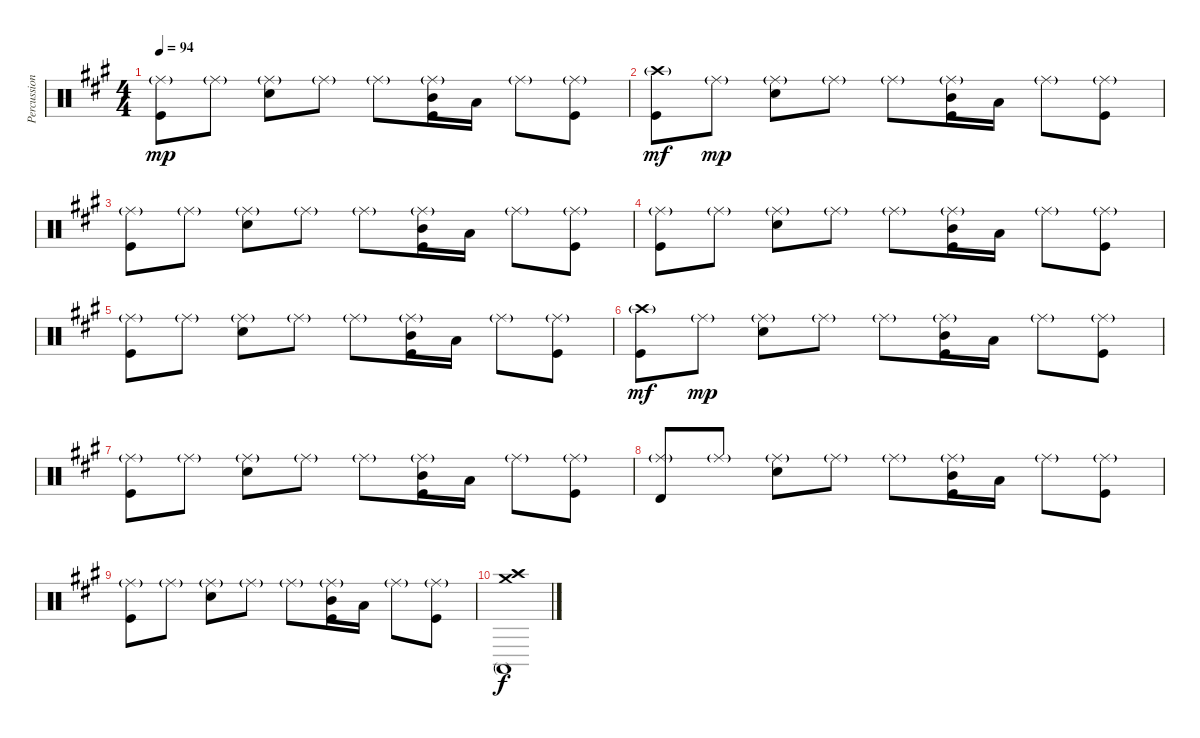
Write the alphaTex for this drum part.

\track ("Percussion" "Percussion") {instrument percussion}
\staff {score}
\articulation defaults
\ts (4 4)
\tempo 94
\clef neutral
\ks a
("Ride (middle)"{g} "Kick (hit)").8{dy mp} "Ride (middle)"{g}.8 ("Ride (middle)"{g} "Electric Snare (hit)").8 "Ride (middle)"{g}.8 "Ride (middle)"{g}.8 ("Ride (middle)"{g} "Mid Tom (hit)" "Kick (hit)").16 "Low Tom (hit)".16 "Ride (middle)"{g}.8 ("Ride (middle)"{g} "Kick (hit)").8 |
("Crash high (hit)"{g} "Kick (hit)").8{dy mf} "Ride (middle)"{g}.8{dy mp} ("Ride (middle)"{g} "Electric Snare (hit)").8 "Ride (middle)"{g}.8 "Ride (middle)"{g}.8 ("Ride (middle)"{g} "Mid Tom (hit)" "Kick (hit)").16 "Low Tom (hit)".16 "Ride (middle)"{g}.8 ("Ride (middle)"{g} "Kick (hit)").8 |
("Ride (middle)"{g} "Kick (hit)").8 "Ride (middle)"{g}.8 ("Ride (middle)"{g} "Electric Snare (hit)").8 "Ride (middle)"{g}.8 "Ride (middle)"{g}.8 ("Ride (middle)"{g} "Mid Tom (hit)" "Kick (hit)").16 "Low Tom (hit)".16 "Ride (middle)"{g}.8 ("Ride (middle)"{g} "Kick (hit)").8 |
("Ride (middle)"{g} "Kick (hit)").8 "Ride (middle)"{g}.8 ("Ride (middle)"{g} "Electric Snare (hit)").8 "Ride (middle)"{g}.8 "Ride (middle)"{g}.8 ("Ride (middle)"{g} "Mid Tom (hit)" "Kick (hit)").16 "Low Tom (hit)".16 "Ride (middle)"{g}.8 ("Ride (middle)"{g} "Kick (hit)").8 |
("Ride (middle)"{g} "Kick (hit)").8 "Ride (middle)"{g}.8 ("Ride (middle)"{g} "Electric Snare (hit)").8 "Ride (middle)"{g}.8 "Ride (middle)"{g}.8 ("Ride (middle)"{g} "Mid Tom (hit)" "Kick (hit)").16 "Low Tom (hit)".16 "Ride (middle)"{g}.8 ("Ride (middle)"{g} "Kick (hit)").8 |
("Crash high (hit)"{g} "Kick (hit)").8{dy mf} "Ride (middle)"{g}.8{dy mp} ("Ride (middle)"{g} "Electric Snare (hit)").8 "Ride (middle)"{g}.8 "Ride (middle)"{g}.8 ("Ride (middle)"{g} "Mid Tom (hit)" "Kick (hit)").16 "Low Tom (hit)".16 "Ride (middle)"{g}.8 ("Ride (middle)"{g} "Kick (hit)").8 |
("Ride (middle)"{g} "Kick (hit)").8 "Ride (middle)"{g}.8 ("Ride (middle)"{g} "Electric Snare (hit)").8 "Ride (middle)"{g}.8 "Ride (middle)"{g}.8 ("Ride (middle)"{g} "Mid Tom (hit)" "Kick (hit)").16 "Low Tom (hit)".16 "Ride (middle)"{g}.8 ("Ride (middle)"{g} "Kick (hit)").8 |
("Ride (middle)"{g} "Timbale high (hit)").8 "Ride (middle)"{g}.8 ("Ride (middle)"{g} "Electric Snare (hit)").8 "Ride (middle)"{g}.8 "Ride (middle)"{g}.8 ("Ride (middle)"{g} "Mid Tom (hit)" "Kick (hit)").16 "Low Tom (hit)".16 "Ride (middle)"{g}.8 ("Ride (middle)"{g} "Kick (hit)").8 |
("Ride (middle)"{g} "Kick (hit)").8 "Ride (middle)"{g}.8 ("Ride (middle)"{g} "Electric Snare (hit)").8 "Ride (middle)"{g}.8 "Ride (middle)"{g}.8 ("Ride (middle)"{g} "Mid Tom (hit)" "Kick (hit)").16 "Low Tom (hit)".16 "Ride (middle)"{g}.8 ("Ride (middle)"{g} "Kick (hit)").8 |
("Crash medium (hit)" "Splash (hit)" "Conga high (mute)" "Crash high (hit)").1{dy f}
